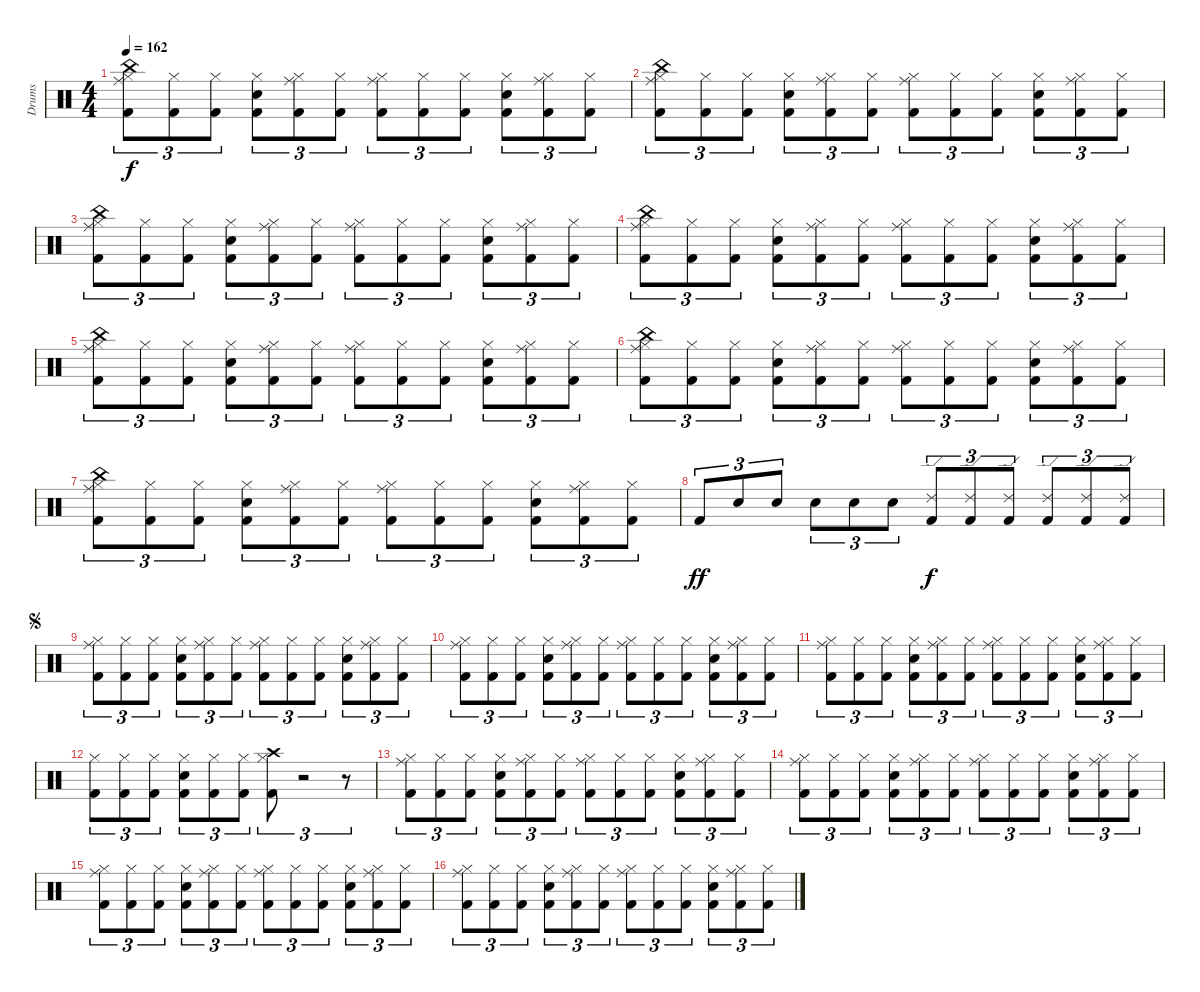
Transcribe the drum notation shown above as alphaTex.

\track ("Drums" "Drums") {instrument percussion}
\staff {score}
\articulation defaults
\ts (4 4)
\tempo 162
\clef neutral
\ks c
("Kick (hit) 2" "Ride (middle)" "China (hit)" "Hi-Hat (closed)").8{tu (3 2) dy f} ("Kick (hit) 2" "Hi-Hat (closed)").8{tu (3 2)} ("Kick (hit) 2" "Hi-Hat (closed)").8{tu (3 2)} ("Kick (hit) 2" "Electric Snare (hit)" "Hi-Hat (closed)").8{tu (3 2)} ("Kick (hit) 2" "Ride (middle)" "Hi-Hat (closed)").8{tu (3 2)} ("Kick (hit) 2" "Hi-Hat (closed)").8{tu (3 2)} ("Kick (hit) 2" "Ride (middle)" "Hi-Hat (closed)").8{tu (3 2)} ("Kick (hit) 2" "Hi-Hat (closed)").8{tu (3 2)} ("Kick (hit) 2" "Hi-Hat (closed)").8{tu (3 2)} ("Kick (hit) 2" "Electric Snare (hit)" "Hi-Hat (closed)").8{tu (3 2)} ("Kick (hit) 2" "Ride (middle)" "Hi-Hat (closed)").8{tu (3 2)} ("Kick (hit) 2" "Hi-Hat (closed)").8{tu (3 2)} |
("Kick (hit) 2" "Ride (middle)" "China (hit)" "Hi-Hat (closed)").8{tu (3 2)} ("Kick (hit) 2" "Hi-Hat (closed)").8{tu (3 2)} ("Kick (hit) 2" "Hi-Hat (closed)").8{tu (3 2)} ("Kick (hit) 2" "Electric Snare (hit)" "Hi-Hat (closed)").8{tu (3 2)} ("Kick (hit) 2" "Ride (middle)" "Hi-Hat (closed)").8{tu (3 2)} ("Kick (hit) 2" "Hi-Hat (closed)").8{tu (3 2)} ("Kick (hit) 2" "Ride (middle)" "Hi-Hat (closed)").8{tu (3 2)} ("Kick (hit) 2" "Hi-Hat (closed)").8{tu (3 2)} ("Kick (hit) 2" "Hi-Hat (closed)").8{tu (3 2)} ("Kick (hit) 2" "Electric Snare (hit)" "Hi-Hat (closed)").8{tu (3 2)} ("Kick (hit) 2" "Ride (middle)" "Hi-Hat (closed)").8{tu (3 2)} ("Kick (hit) 2" "Hi-Hat (closed)").8{tu (3 2)} |
("Kick (hit) 2" "Ride (middle)" "China (hit)" "Hi-Hat (closed)").8{tu (3 2)} ("Kick (hit) 2" "Hi-Hat (closed)").8{tu (3 2)} ("Kick (hit) 2" "Hi-Hat (closed)").8{tu (3 2)} ("Kick (hit) 2" "Electric Snare (hit)" "Hi-Hat (closed)").8{tu (3 2)} ("Kick (hit) 2" "Ride (middle)" "Hi-Hat (closed)").8{tu (3 2)} ("Kick (hit) 2" "Hi-Hat (closed)").8{tu (3 2)} ("Kick (hit) 2" "Ride (middle)" "Hi-Hat (closed)").8{tu (3 2)} ("Kick (hit) 2" "Hi-Hat (closed)").8{tu (3 2)} ("Kick (hit) 2" "Hi-Hat (closed)").8{tu (3 2)} ("Kick (hit) 2" "Electric Snare (hit)" "Hi-Hat (closed)").8{tu (3 2)} ("Kick (hit) 2" "Ride (middle)" "Hi-Hat (closed)").8{tu (3 2)} ("Kick (hit) 2" "Hi-Hat (closed)").8{tu (3 2)} |
("Kick (hit) 2" "Ride (middle)" "China (hit)" "Hi-Hat (closed)").8{tu (3 2)} ("Kick (hit) 2" "Hi-Hat (closed)").8{tu (3 2)} ("Kick (hit) 2" "Hi-Hat (closed)").8{tu (3 2)} ("Kick (hit) 2" "Electric Snare (hit)" "Hi-Hat (closed)").8{tu (3 2)} ("Kick (hit) 2" "Ride (middle)" "Hi-Hat (closed)").8{tu (3 2)} ("Kick (hit) 2" "Hi-Hat (closed)").8{tu (3 2)} ("Kick (hit) 2" "Ride (middle)" "Hi-Hat (closed)").8{tu (3 2)} ("Kick (hit) 2" "Hi-Hat (closed)").8{tu (3 2)} ("Kick (hit) 2" "Hi-Hat (closed)").8{tu (3 2)} ("Kick (hit) 2" "Electric Snare (hit)" "Hi-Hat (closed)").8{tu (3 2)} ("Kick (hit) 2" "Ride (middle)" "Hi-Hat (closed)").8{tu (3 2)} ("Kick (hit) 2" "Hi-Hat (closed)").8{tu (3 2)} |
("Kick (hit) 2" "Ride (middle)" "China (hit)" "Hi-Hat (closed)").8{tu (3 2)} ("Kick (hit) 2" "Hi-Hat (closed)").8{tu (3 2)} ("Kick (hit) 2" "Hi-Hat (closed)").8{tu (3 2)} ("Kick (hit) 2" "Electric Snare (hit)" "Hi-Hat (closed)").8{tu (3 2)} ("Kick (hit) 2" "Ride (middle)" "Hi-Hat (closed)").8{tu (3 2)} ("Kick (hit) 2" "Hi-Hat (closed)").8{tu (3 2)} ("Kick (hit) 2" "Ride (middle)" "Hi-Hat (closed)").8{tu (3 2)} ("Kick (hit) 2" "Hi-Hat (closed)").8{tu (3 2)} ("Kick (hit) 2" "Hi-Hat (closed)").8{tu (3 2)} ("Kick (hit) 2" "Electric Snare (hit)" "Hi-Hat (closed)").8{tu (3 2)} ("Kick (hit) 2" "Ride (middle)" "Hi-Hat (closed)").8{tu (3 2)} ("Kick (hit) 2" "Hi-Hat (closed)").8{tu (3 2)} |
("Kick (hit) 2" "Ride (middle)" "China (hit)" "Hi-Hat (closed)").8{tu (3 2)} ("Kick (hit) 2" "Hi-Hat (closed)").8{tu (3 2)} ("Kick (hit) 2" "Hi-Hat (closed)").8{tu (3 2)} ("Kick (hit) 2" "Electric Snare (hit)" "Hi-Hat (closed)").8{tu (3 2)} ("Kick (hit) 2" "Ride (middle)" "Hi-Hat (closed)").8{tu (3 2)} ("Kick (hit) 2" "Hi-Hat (closed)").8{tu (3 2)} ("Kick (hit) 2" "Ride (middle)" "Hi-Hat (closed)").8{tu (3 2)} ("Kick (hit) 2" "Hi-Hat (closed)").8{tu (3 2)} ("Kick (hit) 2" "Hi-Hat (closed)").8{tu (3 2)} ("Kick (hit) 2" "Electric Snare (hit)" "Hi-Hat (closed)").8{tu (3 2)} ("Kick (hit) 2" "Ride (middle)" "Hi-Hat (closed)").8{tu (3 2)} ("Kick (hit) 2" "Hi-Hat (closed)").8{tu (3 2)} |
("Kick (hit) 2" "Ride (middle)" "China (hit)" "Hi-Hat (closed)").8{tu (3 2)} ("Kick (hit) 2" "Hi-Hat (closed)").8{tu (3 2)} ("Kick (hit) 2" "Hi-Hat (closed)").8{tu (3 2)} ("Kick (hit) 2" "Electric Snare (hit)" "Hi-Hat (closed)").8{tu (3 2)} ("Kick (hit) 2" "Ride (middle)" "Hi-Hat (closed)").8{tu (3 2)} ("Kick (hit) 2" "Hi-Hat (closed)").8{tu (3 2)} ("Kick (hit) 2" "Ride (middle)" "Hi-Hat (closed)").8{tu (3 2)} ("Kick (hit) 2" "Hi-Hat (closed)").8{tu (3 2)} ("Kick (hit) 2" "Hi-Hat (closed)").8{tu (3 2)} ("Kick (hit) 2" "Electric Snare (hit)" "Hi-Hat (closed)").8{tu (3 2)} ("Kick (hit) 2" "Ride (middle)" "Hi-Hat (closed)").8{tu (3 2)} ("Kick (hit) 2" "Hi-Hat (closed)").8{tu (3 2)} |
"Kick (hit) 2".8{tu (3 2) dy ff} "Electric Snare (hit)".8{tu (3 2)} "Electric Snare (hit)".8{tu (3 2)} "Electric Snare (hit)".8{tu (3 2)} "Electric Snare (hit)".8{tu (3 2)} "Electric Snare (hit)".8{tu (3 2)} ("Kick (hit) 2" "Ride (edge) 2").8{tu (3 2) dy f} ("Kick (hit) 2" "Ride (edge) 2").8{tu (3 2)} ("Kick (hit) 2" "Ride (edge) 2").8{tu (3 2)} ("Kick (hit) 2" "Ride (edge) 2").8{tu (3 2)} ("Kick (hit) 2" "Ride (edge) 2").8{tu (3 2)} ("Kick (hit) 2" "Ride (edge) 2").8{tu (3 2)} |
\jump segno
("Kick (hit) 2" "Ride (middle)" "Hi-Hat (closed)").8{tu (3 2)} ("Kick (hit) 2" "Hi-Hat (closed)").8{tu (3 2)} ("Kick (hit) 2" "Hi-Hat (closed)").8{tu (3 2)} ("Kick (hit) 2" "Electric Snare (hit)" "Hi-Hat (closed)").8{tu (3 2)} ("Kick (hit) 2" "Ride (middle)" "Hi-Hat (closed)").8{tu (3 2)} ("Kick (hit) 2" "Hi-Hat (closed)").8{tu (3 2)} ("Kick (hit) 2" "Ride (middle)" "Hi-Hat (closed)").8{tu (3 2)} ("Kick (hit) 2" "Hi-Hat (closed)").8{tu (3 2)} ("Kick (hit) 2" "Hi-Hat (closed)").8{tu (3 2)} ("Kick (hit) 2" "Electric Snare (hit)" "Hi-Hat (closed)").8{tu (3 2)} ("Kick (hit) 2" "Ride (middle)" "Hi-Hat (closed)").8{tu (3 2)} ("Kick (hit) 2" "Hi-Hat (closed)").8{tu (3 2)} |
("Kick (hit) 2" "Ride (middle)" "Hi-Hat (closed)").8{tu (3 2)} ("Kick (hit) 2" "Hi-Hat (closed)").8{tu (3 2)} ("Kick (hit) 2" "Hi-Hat (closed)").8{tu (3 2)} ("Kick (hit) 2" "Electric Snare (hit)" "Hi-Hat (closed)").8{tu (3 2)} ("Kick (hit) 2" "Ride (middle)" "Hi-Hat (closed)").8{tu (3 2)} ("Kick (hit) 2" "Hi-Hat (closed)").8{tu (3 2)} ("Kick (hit) 2" "Ride (middle)" "Hi-Hat (closed)").8{tu (3 2)} ("Kick (hit) 2" "Hi-Hat (closed)").8{tu (3 2)} ("Kick (hit) 2" "Hi-Hat (closed)").8{tu (3 2)} ("Kick (hit) 2" "Electric Snare (hit)" "Hi-Hat (closed)").8{tu (3 2)} ("Kick (hit) 2" "Ride (middle)" "Hi-Hat (closed)").8{tu (3 2)} ("Kick (hit) 2" "Hi-Hat (closed)").8{tu (3 2)} |
("Kick (hit) 2" "Ride (middle)" "Hi-Hat (closed)").8{tu (3 2)} ("Kick (hit) 2" "Hi-Hat (closed)").8{tu (3 2)} ("Kick (hit) 2" "Hi-Hat (closed)").8{tu (3 2)} ("Kick (hit) 2" "Electric Snare (hit)" "Hi-Hat (closed)").8{tu (3 2)} ("Kick (hit) 2" "Ride (middle)" "Hi-Hat (closed)").8{tu (3 2)} ("Kick (hit) 2" "Hi-Hat (closed)").8{tu (3 2)} ("Kick (hit) 2" "Ride (middle)" "Hi-Hat (closed)").8{tu (3 2)} ("Kick (hit) 2" "Hi-Hat (closed)").8{tu (3 2)} ("Kick (hit) 2" "Hi-Hat (closed)").8{tu (3 2)} ("Kick (hit) 2" "Electric Snare (hit)" "Hi-Hat (closed)").8{tu (3 2)} ("Kick (hit) 2" "Ride (middle)" "Hi-Hat (closed)").8{tu (3 2)} ("Kick (hit) 2" "Hi-Hat (closed)").8{tu (3 2)} |
("Kick (hit) 2" "Hi-Hat (closed)").8{tu (3 2)} ("Kick (hit) 2" "Hi-Hat (closed)").8{tu (3 2)} ("Kick (hit) 2" "Hi-Hat (closed)").8{tu (3 2)} ("Kick (hit) 2" "Electric Snare (hit)" "Hi-Hat (closed)").8{tu (3 2)} ("Kick (hit) 2" "Hi-Hat (closed)").8{tu (3 2)} ("Kick (hit) 2" "Hi-Hat (closed)").8{tu (3 2)} ("Kick (hit) 2" "Crash high (hit)" "Hi-Hat (closed)").8{tu (3 2)} r.2{tu (3 2)} r.8{tu (3 2)} |
("Kick (hit) 2" "Ride (middle)" "Hi-Hat (closed)").8{tu (3 2)} ("Kick (hit) 2" "Hi-Hat (closed)").8{tu (3 2)} ("Kick (hit) 2" "Hi-Hat (closed)").8{tu (3 2)} ("Kick (hit) 2" "Electric Snare (hit)" "Hi-Hat (closed)").8{tu (3 2)} ("Kick (hit) 2" "Ride (middle)" "Hi-Hat (closed)").8{tu (3 2)} ("Kick (hit) 2" "Hi-Hat (closed)").8{tu (3 2)} ("Kick (hit) 2" "Ride (middle)" "Hi-Hat (closed)").8{tu (3 2)} ("Kick (hit) 2" "Hi-Hat (closed)").8{tu (3 2)} ("Kick (hit) 2" "Hi-Hat (closed)").8{tu (3 2)} ("Kick (hit) 2" "Electric Snare (hit)" "Hi-Hat (closed)").8{tu (3 2)} ("Kick (hit) 2" "Ride (middle)" "Hi-Hat (closed)").8{tu (3 2)} ("Kick (hit) 2" "Hi-Hat (closed)").8{tu (3 2)} |
("Kick (hit) 2" "Ride (middle)" "Hi-Hat (closed)").8{tu (3 2)} ("Kick (hit) 2" "Hi-Hat (closed)").8{tu (3 2)} ("Kick (hit) 2" "Hi-Hat (closed)").8{tu (3 2)} ("Kick (hit) 2" "Electric Snare (hit)" "Hi-Hat (closed)").8{tu (3 2)} ("Kick (hit) 2" "Ride (middle)" "Hi-Hat (closed)").8{tu (3 2)} ("Kick (hit) 2" "Hi-Hat (closed)").8{tu (3 2)} ("Kick (hit) 2" "Ride (middle)" "Hi-Hat (closed)").8{tu (3 2)} ("Kick (hit) 2" "Hi-Hat (closed)").8{tu (3 2)} ("Kick (hit) 2" "Hi-Hat (closed)").8{tu (3 2)} ("Kick (hit) 2" "Electric Snare (hit)" "Hi-Hat (closed)").8{tu (3 2)} ("Kick (hit) 2" "Ride (middle)" "Hi-Hat (closed)").8{tu (3 2)} ("Kick (hit) 2" "Hi-Hat (closed)").8{tu (3 2)} |
("Kick (hit) 2" "Ride (middle)" "Hi-Hat (closed)").8{tu (3 2)} ("Kick (hit) 2" "Hi-Hat (closed)").8{tu (3 2)} ("Kick (hit) 2" "Hi-Hat (closed)").8{tu (3 2)} ("Kick (hit) 2" "Electric Snare (hit)" "Hi-Hat (closed)").8{tu (3 2)} ("Kick (hit) 2" "Ride (middle)" "Hi-Hat (closed)").8{tu (3 2)} ("Kick (hit) 2" "Hi-Hat (closed)").8{tu (3 2)} ("Kick (hit) 2" "Ride (middle)" "Hi-Hat (closed)").8{tu (3 2)} ("Kick (hit) 2" "Hi-Hat (closed)").8{tu (3 2)} ("Kick (hit) 2" "Hi-Hat (closed)").8{tu (3 2)} ("Kick (hit) 2" "Electric Snare (hit)" "Hi-Hat (closed)").8{tu (3 2)} ("Kick (hit) 2" "Ride (middle)" "Hi-Hat (closed)").8{tu (3 2)} ("Kick (hit) 2" "Hi-Hat (closed)").8{tu (3 2)} |
("Kick (hit) 2" "Ride (middle)" "Hi-Hat (closed)").8{tu (3 2)} ("Kick (hit) 2" "Hi-Hat (closed)").8{tu (3 2)} ("Kick (hit) 2" "Hi-Hat (closed)").8{tu (3 2)} ("Kick (hit) 2" "Electric Snare (hit)" "Hi-Hat (closed)").8{tu (3 2)} ("Kick (hit) 2" "Ride (middle)" "Hi-Hat (closed)").8{tu (3 2)} ("Kick (hit) 2" "Hi-Hat (closed)").8{tu (3 2)} ("Kick (hit) 2" "Ride (middle)" "Hi-Hat (closed)").8{tu (3 2)} ("Kick (hit) 2" "Hi-Hat (closed)").8{tu (3 2)} ("Kick (hit) 2" "Hi-Hat (closed)").8{tu (3 2)} ("Kick (hit) 2" "Electric Snare (hit)" "Hi-Hat (closed)").8{tu (3 2)} ("Kick (hit) 2" "Ride (middle)" "Hi-Hat (closed)").8{tu (3 2)} ("Kick (hit) 2" "Hi-Hat (closed)").8{tu (3 2)}
